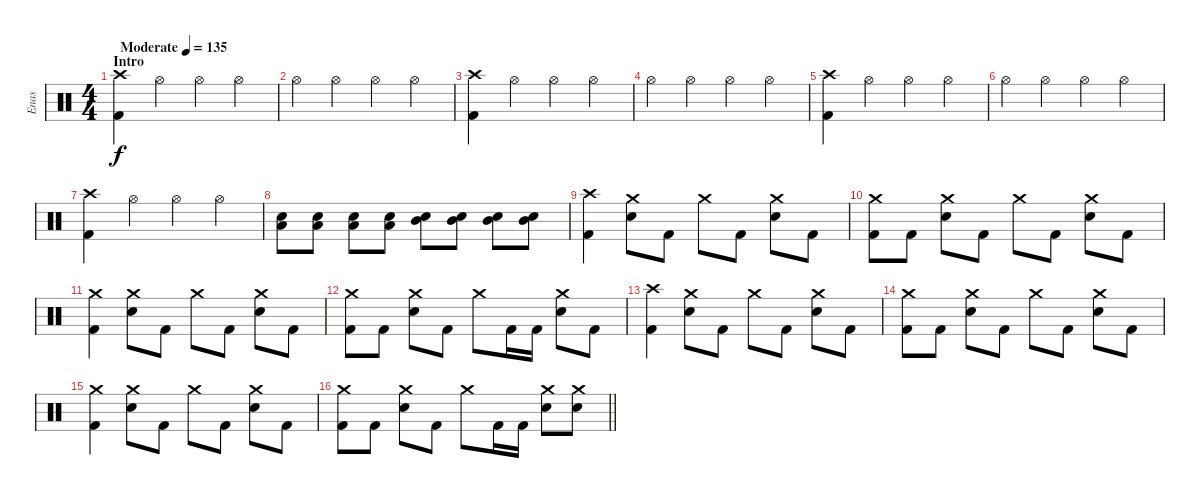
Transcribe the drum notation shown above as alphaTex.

\track ("Enas" "Enas") {instrument percussion}
\staff {score}
\articulation defaults
\ts (4 4)
\section ("" "Intro")
\tempo (135 "Moderate")
\clef neutral
\ks c
("Crash high (hit)" "Kick (hit) 2").4{dy f} "Hi-Hat (open)".4 "Hi-Hat (open)".4 "Hi-Hat (open)".4 |
"Hi-Hat (open)".4 "Hi-Hat (open)".4 "Hi-Hat (open)".4 "Hi-Hat (open)".4 |
("Crash high (hit)" "Kick (hit) 2").4 "Hi-Hat (open)".4 "Hi-Hat (open)".4 "Hi-Hat (open)".4 |
"Hi-Hat (open)".4 "Hi-Hat (open)".4 "Hi-Hat (open)".4 "Hi-Hat (open)".4 |
("Crash high (hit)" "Kick (hit) 2").4 "Hi-Hat (open)".4 "Hi-Hat (open)".4 "Hi-Hat (open)".4 |
"Hi-Hat (open)".4 "Hi-Hat (open)".4 "Hi-Hat (open)".4 "Hi-Hat (open)".4 |
("Crash high (hit)" "Kick (hit) 2").4 "Hi-Hat (open)".4 "Hi-Hat (open)".4 "Hi-Hat (open)".4 |
("Snare (hit) 2" "Low Tom (hit)").8 ("Snare (hit) 2" "Low Tom (hit)").8 ("Snare (hit) 2" "Low Tom (hit)").8 ("Snare (hit) 2" "Low Tom (hit)").8 ("Snare (hit) 2" "Mid Tom (hit)").8 ("Snare (hit) 2" "Mid Tom (hit)").8 ("Snare (hit) 2" "Mid Tom (hit)").8 ("Snare (hit) 2" "Mid Tom (hit)").8 |
("Kick (hit) 2" "Crash high (hit)").4 ("Snare (hit) 2" "Crash medium (hit)").8 "Kick (hit) 2".8 "Crash medium (hit)".8 "Kick (hit) 2".8 ("Snare (hit) 2" "Crash medium (hit)").8 "Kick (hit) 2".8 |
("Kick (hit) 2" "Crash medium (hit)").8 "Kick (hit) 2".8 ("Snare (hit) 2" "Crash medium (hit)").8 "Kick (hit) 2".8 "Crash medium (hit)".8 "Kick (hit) 2".8 ("Snare (hit) 2" "Crash medium (hit)").8 "Kick (hit) 2".8 |
("Kick (hit) 2" "Crash medium (hit)").4 ("Snare (hit) 2" "Crash medium (hit)").8 "Kick (hit) 2".8 "Crash medium (hit)".8 "Kick (hit) 2".8 ("Snare (hit) 2" "Crash medium (hit)").8 "Kick (hit) 2".8 |
("Kick (hit) 2" "Crash medium (hit)").8 "Kick (hit) 2".8 ("Snare (hit) 2" "Crash medium (hit)").8 "Kick (hit) 2".8 "Crash medium (hit)".8 "Kick (hit) 2".16 "Kick (hit) 2".16 ("Snare (hit) 2" "Crash medium (hit)").8 "Kick (hit) 2".8 |
("Kick (hit) 2" "Crash high (hit)").4 ("Snare (hit) 2" "Crash medium (hit)").8 "Kick (hit) 2".8 "Crash medium (hit)".8 "Kick (hit) 2".8 ("Snare (hit) 2" "Crash medium (hit)").8 "Kick (hit) 2".8 |
("Kick (hit) 2" "Crash medium (hit)").8 "Kick (hit) 2".8 ("Snare (hit) 2" "Crash medium (hit)").8 "Kick (hit) 2".8 "Crash medium (hit)".8 "Kick (hit) 2".8 ("Snare (hit) 2" "Crash medium (hit)").8 "Kick (hit) 2".8 |
("Kick (hit) 2" "Crash medium (hit)").4 ("Snare (hit) 2" "Crash medium (hit)").8 "Kick (hit) 2".8 "Crash medium (hit)".8 "Kick (hit) 2".8 ("Snare (hit) 2" "Crash medium (hit)").8 "Kick (hit) 2".8 |
\barLineRight lightlight
("Kick (hit) 2" "Crash medium (hit)").8 "Kick (hit) 2".8 ("Snare (hit) 2" "Crash medium (hit)").8 "Kick (hit) 2".8 "Crash medium (hit)".8 "Kick (hit) 2".16 "Kick (hit) 2".16 ("Snare (hit) 2" "Crash medium (hit)").8 ("Snare (hit) 2" "Crash medium (hit)").8
